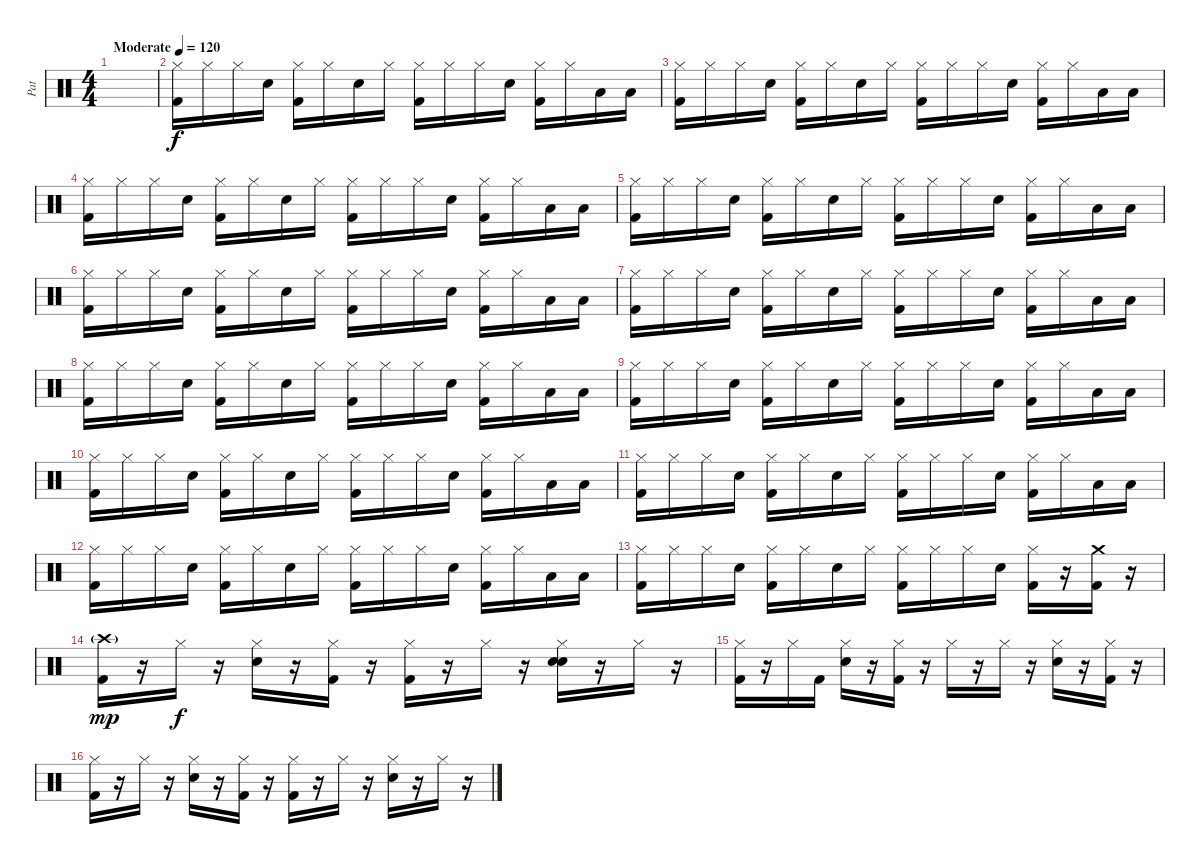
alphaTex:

\track ("Pat" "Pat") {instrument percussion}
\staff {score}
\articulation defaults
\ts (4 4)
\tempo (120 "Moderate")
\clef neutral
\ks c
|
("Hi-Hat (closed)" "Kick (hit) 2").16 "Hi-Hat (closed)".16 "Hi-Hat (closed)".16 "Electric Snare (hit)".16 ("Hi-Hat (closed)" "Kick (hit) 2").16 "Hi-Hat (closed)".16 "Electric Snare (hit)".16 "Hi-Hat (closed)".16 ("Hi-Hat (closed)" "Kick (hit) 2").16 "Hi-Hat (closed)".16 "Hi-Hat (closed)".16 "Electric Snare (hit)".16 ("Hi-Hat (closed)" "Kick (hit) 2").16 "Hi-Hat (closed)".16 "Low Tom (hit)".16 "Low Tom (hit)".16 |
("Hi-Hat (closed)" "Kick (hit) 2").16 "Hi-Hat (closed)".16 "Hi-Hat (closed)".16 "Electric Snare (hit)".16 ("Hi-Hat (closed)" "Kick (hit) 2").16 "Hi-Hat (closed)".16 "Electric Snare (hit)".16 "Hi-Hat (closed)".16 ("Hi-Hat (closed)" "Kick (hit) 2").16 "Hi-Hat (closed)".16 "Hi-Hat (closed)".16 "Electric Snare (hit)".16 ("Hi-Hat (closed)" "Kick (hit) 2").16 "Hi-Hat (closed)".16 "Low Tom (hit)".16 "Low Tom (hit)".16 |
("Hi-Hat (closed)" "Kick (hit) 2").16 "Hi-Hat (closed)".16 "Hi-Hat (closed)".16 "Electric Snare (hit)".16 ("Hi-Hat (closed)" "Kick (hit) 2").16 "Hi-Hat (closed)".16 "Electric Snare (hit)".16 "Hi-Hat (closed)".16 ("Hi-Hat (closed)" "Kick (hit) 2").16 "Hi-Hat (closed)".16 "Hi-Hat (closed)".16 "Electric Snare (hit)".16 ("Hi-Hat (closed)" "Kick (hit) 2").16 "Hi-Hat (closed)".16 "Low Tom (hit)".16 "Low Tom (hit)".16 |
("Hi-Hat (closed)" "Kick (hit) 2").16 "Hi-Hat (closed)".16 "Hi-Hat (closed)".16 "Electric Snare (hit)".16 ("Hi-Hat (closed)" "Kick (hit) 2").16 "Hi-Hat (closed)".16 "Electric Snare (hit)".16 "Hi-Hat (closed)".16 ("Hi-Hat (closed)" "Kick (hit) 2").16 "Hi-Hat (closed)".16 "Hi-Hat (closed)".16 "Electric Snare (hit)".16 ("Hi-Hat (closed)" "Kick (hit) 2").16 "Hi-Hat (closed)".16 "Low Tom (hit)".16 "Low Tom (hit)".16 |
("Hi-Hat (closed)" "Kick (hit) 2").16 "Hi-Hat (closed)".16 "Hi-Hat (closed)".16 "Electric Snare (hit)".16 ("Hi-Hat (closed)" "Kick (hit) 2").16 "Hi-Hat (closed)".16 "Electric Snare (hit)".16 "Hi-Hat (closed)".16 ("Hi-Hat (closed)" "Kick (hit) 2").16 "Hi-Hat (closed)".16 "Hi-Hat (closed)".16 "Electric Snare (hit)".16 ("Hi-Hat (closed)" "Kick (hit) 2").16 "Hi-Hat (closed)".16 "Low Tom (hit)".16 "Low Tom (hit)".16 |
("Hi-Hat (closed)" "Kick (hit) 2").16 "Hi-Hat (closed)".16 "Hi-Hat (closed)".16 "Electric Snare (hit)".16 ("Hi-Hat (closed)" "Kick (hit) 2").16 "Hi-Hat (closed)".16 "Electric Snare (hit)".16 "Hi-Hat (closed)".16 ("Hi-Hat (closed)" "Kick (hit) 2").16 "Hi-Hat (closed)".16 "Hi-Hat (closed)".16 "Electric Snare (hit)".16 ("Hi-Hat (closed)" "Kick (hit) 2").16 "Hi-Hat (closed)".16 "Low Tom (hit)".16 "Low Tom (hit)".16 |
("Hi-Hat (closed)" "Kick (hit) 2").16 "Hi-Hat (closed)".16 "Hi-Hat (closed)".16 "Electric Snare (hit)".16 ("Hi-Hat (closed)" "Kick (hit) 2").16 "Hi-Hat (closed)".16 "Electric Snare (hit)".16 "Hi-Hat (closed)".16 ("Hi-Hat (closed)" "Kick (hit) 2").16 "Hi-Hat (closed)".16 "Hi-Hat (closed)".16 "Electric Snare (hit)".16 ("Hi-Hat (closed)" "Kick (hit) 2").16 "Hi-Hat (closed)".16 "Low Tom (hit)".16 "Low Tom (hit)".16 |
("Hi-Hat (closed)" "Kick (hit) 2").16 "Hi-Hat (closed)".16 "Hi-Hat (closed)".16 "Electric Snare (hit)".16 ("Hi-Hat (closed)" "Kick (hit) 2").16 "Hi-Hat (closed)".16 "Electric Snare (hit)".16 "Hi-Hat (closed)".16 ("Hi-Hat (closed)" "Kick (hit) 2").16 "Hi-Hat (closed)".16 "Hi-Hat (closed)".16 "Electric Snare (hit)".16 ("Hi-Hat (closed)" "Kick (hit) 2").16 "Hi-Hat (closed)".16 "Low Tom (hit)".16 "Low Tom (hit)".16 |
("Hi-Hat (closed)" "Kick (hit) 2").16 "Hi-Hat (closed)".16 "Hi-Hat (closed)".16 "Electric Snare (hit)".16 ("Hi-Hat (closed)" "Kick (hit) 2").16 "Hi-Hat (closed)".16 "Electric Snare (hit)".16 "Hi-Hat (closed)".16 ("Hi-Hat (closed)" "Kick (hit) 2").16 "Hi-Hat (closed)".16 "Hi-Hat (closed)".16 "Electric Snare (hit)".16 ("Hi-Hat (closed)" "Kick (hit) 2").16 "Hi-Hat (closed)".16 "Low Tom (hit)".16 "Low Tom (hit)".16 |
("Hi-Hat (closed)" "Kick (hit) 2").16 "Hi-Hat (closed)".16 "Hi-Hat (closed)".16 "Electric Snare (hit)".16 ("Hi-Hat (closed)" "Kick (hit) 2").16 "Hi-Hat (closed)".16 "Electric Snare (hit)".16 "Hi-Hat (closed)".16 ("Hi-Hat (closed)" "Kick (hit) 2").16 "Hi-Hat (closed)".16 "Hi-Hat (closed)".16 "Electric Snare (hit)".16 ("Hi-Hat (closed)" "Kick (hit) 2").16 "Hi-Hat (closed)".16 "Low Tom (hit)".16 "Low Tom (hit)".16 |
("Hi-Hat (closed)" "Kick (hit) 2").16 "Hi-Hat (closed)".16 "Hi-Hat (closed)".16 "Electric Snare (hit)".16 ("Hi-Hat (closed)" "Kick (hit) 2").16 "Hi-Hat (closed)".16 "Electric Snare (hit)".16 "Hi-Hat (closed)".16 ("Hi-Hat (closed)" "Kick (hit) 2").16 "Hi-Hat (closed)".16 "Hi-Hat (closed)".16 "Electric Snare (hit)".16 ("Hi-Hat (closed)" "Kick (hit) 2").16 "Hi-Hat (closed)".16 "Low Tom (hit)".16 "Low Tom (hit)".16 |
("Hi-Hat (closed)" "Kick (hit) 2").16 "Hi-Hat (closed)".16 "Hi-Hat (closed)".16 "Electric Snare (hit)".16 ("Hi-Hat (closed)" "Kick (hit) 2").16 "Hi-Hat (closed)".16 "Electric Snare (hit)".16 "Hi-Hat (closed)".16 ("Hi-Hat (closed)" "Kick (hit) 2").16 "Hi-Hat (closed)".16 "Hi-Hat (closed)".16 "Electric Snare (hit)".16 ("Hi-Hat (closed)" "Kick (hit) 2").16 r.16 ("Crash medium (hit)" "Kick (hit) 2").16 r.16 |
("Crash high (hit)"{g} "Kick (hit) 2").16{dy mp} r.16 "Hi-Hat (closed)".16{dy f} r.16 ("Hi-Hat (closed)" "Electric Snare (hit)").16 r.16 ("Hi-Hat (closed)" "Kick (hit) 2").16 r.16 ("Hi-Hat (closed)" "Kick (hit) 2").16 r.16 "Hi-Hat (closed)".16 r.16 ("Hi-Hat (closed)" "Electric Snare (hit)" "Hand Clap (hit)").16 r.16 "Hi-Hat (closed)".16 r.16 |
("Hi-Hat (closed)" "Kick (hit) 2").16 r.16 "Hi-Hat (closed)".16 "Kick (hit) 2".16 ("Hi-Hat (closed)" "Electric Snare (hit)").16 r.16 ("Hi-Hat (closed)" "Kick (hit) 2").16 r.16 "Hi-Hat (closed)".16 r.16 "Hi-Hat (closed)".16 r.16 ("Hi-Hat (closed)" "Electric Snare (hit)").16 r.16 ("Hi-Hat (closed)" "Kick (hit) 2").16 r.16 |
("Hi-Hat (closed)" "Kick (hit) 2").16 r.16 "Hi-Hat (closed)".16 r.16 ("Hi-Hat (closed)" "Electric Snare (hit)").16 r.16 ("Hi-Hat (closed)" "Kick (hit) 2").16 r.16 ("Hi-Hat (closed)" "Kick (hit) 2").16 r.16 "Hi-Hat (closed)".16 r.16 ("Hi-Hat (closed)" "Electric Snare (hit)").16 r.16 "Hi-Hat (closed)".16 r.16
